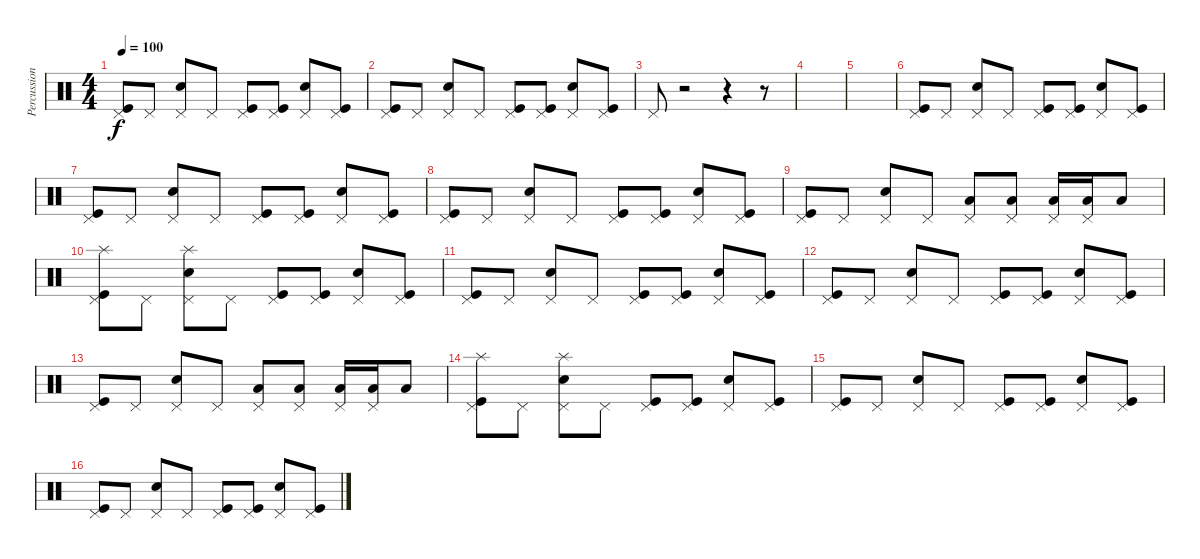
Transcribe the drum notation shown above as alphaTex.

\track ("Percussion" "Percussion") {instrument percussion}
\staff {score}
\articulation defaults
\ts (4 4)
\tempo 100
\clef neutral
\ks c
("Kick (hit)" "Pedal Hi-Hat (hit)").8{dy f} "Pedal Hi-Hat (hit)".8 ("Snare (hit) 2" "Pedal Hi-Hat (hit)").8 "Pedal Hi-Hat (hit)".8 ("Kick (hit)" "Pedal Hi-Hat (hit)").8 ("Kick (hit)" "Pedal Hi-Hat (hit)").8 ("Snare (hit) 2" "Pedal Hi-Hat (hit)").8 ("Kick (hit)" "Pedal Hi-Hat (hit)").8 |
("Kick (hit)" "Pedal Hi-Hat (hit)").8 "Pedal Hi-Hat (hit)".8 ("Snare (hit) 2" "Pedal Hi-Hat (hit)").8 "Pedal Hi-Hat (hit)".8 ("Kick (hit)" "Pedal Hi-Hat (hit)").8 ("Kick (hit)" "Pedal Hi-Hat (hit)").8 ("Snare (hit) 2" "Pedal Hi-Hat (hit)").8 ("Kick (hit)" "Pedal Hi-Hat (hit)").8 |
"Pedal Hi-Hat (hit)".8 r.2 r.4 r.8 |
|
|
("Kick (hit)" "Pedal Hi-Hat (hit)").8 "Pedal Hi-Hat (hit)".8 ("Snare (hit) 2" "Pedal Hi-Hat (hit)").8 "Pedal Hi-Hat (hit)".8 ("Kick (hit)" "Pedal Hi-Hat (hit)").8 ("Kick (hit)" "Pedal Hi-Hat (hit)").8 ("Snare (hit) 2" "Pedal Hi-Hat (hit)").8 ("Kick (hit)" "Pedal Hi-Hat (hit)").8 |
("Kick (hit)" "Pedal Hi-Hat (hit)").8 "Pedal Hi-Hat (hit)".8 ("Snare (hit) 2" "Pedal Hi-Hat (hit)").8 "Pedal Hi-Hat (hit)".8 ("Kick (hit)" "Pedal Hi-Hat (hit)").8 ("Kick (hit)" "Pedal Hi-Hat (hit)").8 ("Snare (hit) 2" "Pedal Hi-Hat (hit)").8 ("Kick (hit)" "Pedal Hi-Hat (hit)").8 |
("Kick (hit)" "Pedal Hi-Hat (hit)").8 "Pedal Hi-Hat (hit)".8 ("Snare (hit) 2" "Pedal Hi-Hat (hit)").8 "Pedal Hi-Hat (hit)".8 ("Kick (hit)" "Pedal Hi-Hat (hit)").8 ("Kick (hit)" "Pedal Hi-Hat (hit)").8 ("Snare (hit) 2" "Pedal Hi-Hat (hit)").8 ("Kick (hit)" "Pedal Hi-Hat (hit)").8 |
("Kick (hit)" "Pedal Hi-Hat (hit)").8 "Pedal Hi-Hat (hit)".8 ("Snare (hit) 2" "Pedal Hi-Hat (hit)").8 "Pedal Hi-Hat (hit)".8 ("Low Tom (hit)" "Pedal Hi-Hat (hit)").8 ("Low Tom (hit)" "Pedal Hi-Hat (hit)").8 ("Low Tom (hit)" "Pedal Hi-Hat (hit)").16 ("Low Floor Tom (hit)" "Pedal Hi-Hat (hit)").16 "Low Tom (hit)".8 |
("Splash (hit)" "Kick (hit)" "Pedal Hi-Hat (hit)").8 "Pedal Hi-Hat (hit)".8 ("Splash (hit)" "Snare (hit) 2" "Pedal Hi-Hat (hit)").8 "Pedal Hi-Hat (hit)".8 ("Kick (hit)" "Pedal Hi-Hat (hit)").8 ("Kick (hit)" "Pedal Hi-Hat (hit)").8 ("Snare (hit) 2" "Pedal Hi-Hat (hit)").8 ("Kick (hit)" "Pedal Hi-Hat (hit)").8 |
("Kick (hit)" "Pedal Hi-Hat (hit)").8 "Pedal Hi-Hat (hit)".8 ("Snare (hit) 2" "Pedal Hi-Hat (hit)").8 "Pedal Hi-Hat (hit)".8 ("Kick (hit)" "Pedal Hi-Hat (hit)").8 ("Kick (hit)" "Pedal Hi-Hat (hit)").8 ("Snare (hit) 2" "Pedal Hi-Hat (hit)").8 ("Kick (hit)" "Pedal Hi-Hat (hit)").8 |
("Kick (hit)" "Pedal Hi-Hat (hit)").8 "Pedal Hi-Hat (hit)".8 ("Snare (hit) 2" "Pedal Hi-Hat (hit)").8 "Pedal Hi-Hat (hit)".8 ("Kick (hit)" "Pedal Hi-Hat (hit)").8 ("Kick (hit)" "Pedal Hi-Hat (hit)").8 ("Snare (hit) 2" "Pedal Hi-Hat (hit)").8 ("Kick (hit)" "Pedal Hi-Hat (hit)").8 |
("Kick (hit)" "Pedal Hi-Hat (hit)").8 "Pedal Hi-Hat (hit)".8 ("Snare (hit) 2" "Pedal Hi-Hat (hit)").8 "Pedal Hi-Hat (hit)".8 ("Low Tom (hit)" "Pedal Hi-Hat (hit)").8 ("Low Tom (hit)" "Pedal Hi-Hat (hit)").8 ("Low Tom (hit)" "Pedal Hi-Hat (hit)").16 ("Low Floor Tom (hit)" "Pedal Hi-Hat (hit)").16 "Low Tom (hit)".8 |
("Splash (hit)" "Kick (hit)" "Pedal Hi-Hat (hit)").8 "Pedal Hi-Hat (hit)".8 ("Splash (hit)" "Snare (hit) 2" "Pedal Hi-Hat (hit)").8 "Pedal Hi-Hat (hit)".8 ("Kick (hit)" "Pedal Hi-Hat (hit)").8 ("Kick (hit)" "Pedal Hi-Hat (hit)").8 ("Snare (hit) 2" "Pedal Hi-Hat (hit)").8 ("Kick (hit)" "Pedal Hi-Hat (hit)").8 |
("Kick (hit)" "Pedal Hi-Hat (hit)").8 "Pedal Hi-Hat (hit)".8 ("Snare (hit) 2" "Pedal Hi-Hat (hit)").8 "Pedal Hi-Hat (hit)".8 ("Kick (hit)" "Pedal Hi-Hat (hit)").8 ("Kick (hit)" "Pedal Hi-Hat (hit)").8 ("Snare (hit) 2" "Pedal Hi-Hat (hit)").8 ("Kick (hit)" "Pedal Hi-Hat (hit)").8 |
("Kick (hit)" "Pedal Hi-Hat (hit)").8 "Pedal Hi-Hat (hit)".8 ("Snare (hit) 2" "Pedal Hi-Hat (hit)").8 "Pedal Hi-Hat (hit)".8 ("Kick (hit)" "Pedal Hi-Hat (hit)").8 ("Kick (hit)" "Pedal Hi-Hat (hit)").8 ("Snare (hit) 2" "Pedal Hi-Hat (hit)").8 ("Kick (hit)" "Pedal Hi-Hat (hit)").8
